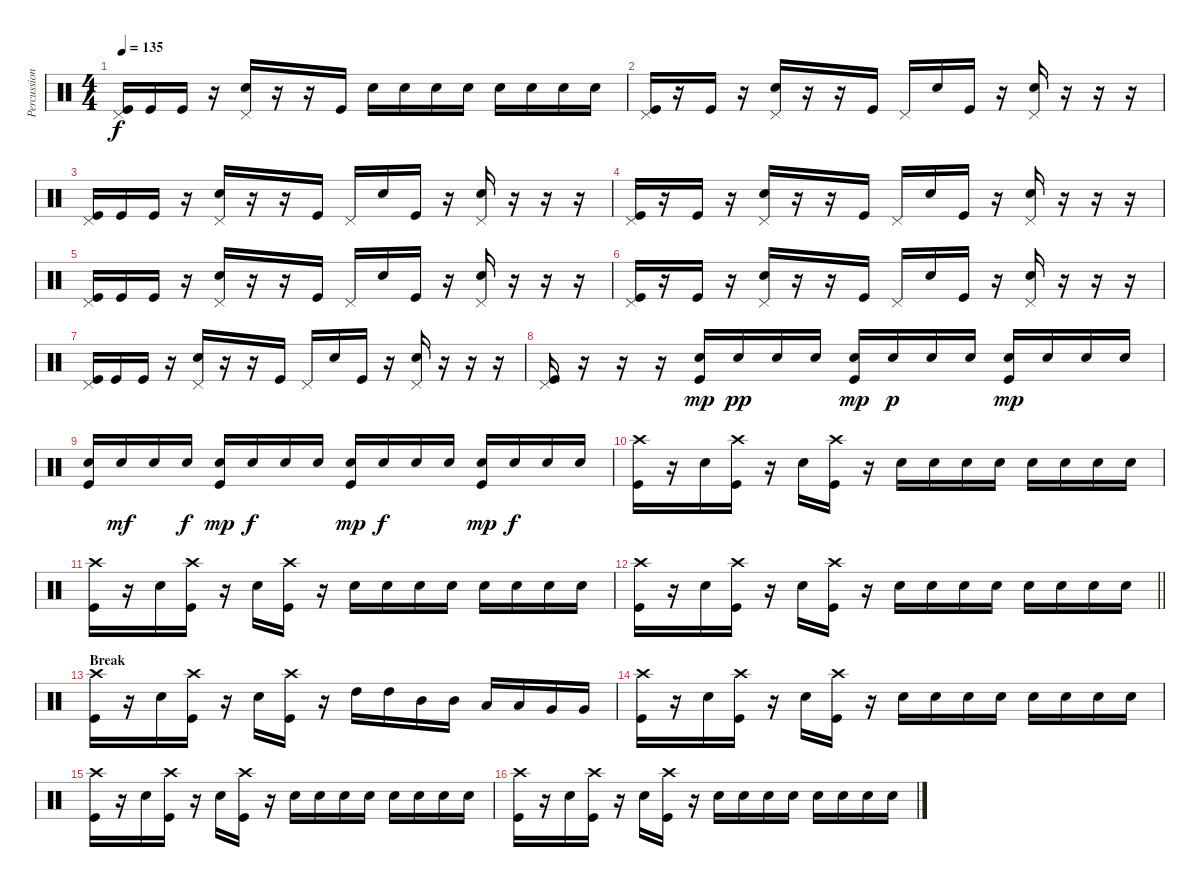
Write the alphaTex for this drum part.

\track ("Percussion" "Percussion") {instrument percussion}
\staff {score}
\articulation defaults
\ts (4 4)
\tempo 135
\clef neutral
\ks c
("Pedal Hi-Hat (hit)" "Kick (hit)").16{dy f} "Kick (hit)".16 "Kick (hit)".16 r.16 ("Pedal Hi-Hat (hit)" "Snare (hit) 2").16 r.16 r.16 "Kick (hit)".16 "Snare (hit) 2".16 "Snare (hit) 2".16 "Snare (hit) 2".16 "Snare (hit) 2".16 "Snare (hit) 2".16 "Snare (hit) 2".16 "Snare (hit) 2".16 "Snare (hit) 2".16 |
("Pedal Hi-Hat (hit)" "Kick (hit)").16 r.16 "Kick (hit)".16 r.16 ("Pedal Hi-Hat (hit)" "Snare (hit) 2").16 r.16 r.16 "Kick (hit)".16 "Pedal Hi-Hat (hit)".16 "Snare (hit) 2".16 "Kick (hit)".16 r.16 ("Pedal Hi-Hat (hit)" "Snare (hit) 2").16 r.16 r.16 r.16 |
("Pedal Hi-Hat (hit)" "Kick (hit)").16 "Kick (hit)".16 "Kick (hit)".16 r.16 ("Pedal Hi-Hat (hit)" "Snare (hit) 2").16 r.16 r.16 "Kick (hit)".16 "Pedal Hi-Hat (hit)".16 "Snare (hit) 2".16 "Kick (hit)".16 r.16 ("Pedal Hi-Hat (hit)" "Snare (hit) 2").16 r.16 r.16 r.16 |
("Pedal Hi-Hat (hit)" "Kick (hit)").16 r.16 "Kick (hit)".16 r.16 ("Pedal Hi-Hat (hit)" "Snare (hit) 2").16 r.16 r.16 "Kick (hit)".16 "Pedal Hi-Hat (hit)".16 "Snare (hit) 2".16 "Kick (hit)".16 r.16 ("Pedal Hi-Hat (hit)" "Snare (hit) 2").16 r.16 r.16 r.16 |
("Pedal Hi-Hat (hit)" "Kick (hit)").16 "Kick (hit)".16 "Kick (hit)".16 r.16 ("Pedal Hi-Hat (hit)" "Snare (hit) 2").16 r.16 r.16 "Kick (hit)".16 "Pedal Hi-Hat (hit)".16 "Snare (hit) 2".16 "Kick (hit)".16 r.16 ("Pedal Hi-Hat (hit)" "Snare (hit) 2").16 r.16 r.16 r.16 |
("Pedal Hi-Hat (hit)" "Kick (hit)").16 r.16 "Kick (hit)".16 r.16 ("Pedal Hi-Hat (hit)" "Snare (hit) 2").16 r.16 r.16 "Kick (hit)".16 "Pedal Hi-Hat (hit)".16 "Snare (hit) 2".16 "Kick (hit)".16 r.16 ("Pedal Hi-Hat (hit)" "Snare (hit) 2").16 r.16 r.16 r.16 |
("Pedal Hi-Hat (hit)" "Kick (hit)").16 "Kick (hit)".16 "Kick (hit)".16 r.16 ("Pedal Hi-Hat (hit)" "Snare (hit) 2").16 r.16 r.16 "Kick (hit)".16 "Pedal Hi-Hat (hit)".16 "Snare (hit) 2".16 "Kick (hit)".16 r.16 ("Pedal Hi-Hat (hit)" "Snare (hit) 2").16 r.16 r.16 r.16 |
("Pedal Hi-Hat (hit)" "Kick (hit)").16 r.16 r.16 r.16 ("Snare (hit) 2" "Kick (hit)").16{dy mp} "Snare (hit) 2".16{dy pp} "Snare (hit) 2".16 "Snare (hit) 2".16 ("Snare (hit) 2" "Kick (hit)").16{dy mp} "Snare (hit) 2".16{dy p} "Snare (hit) 2".16 "Snare (hit) 2".16 ("Snare (hit) 2" "Kick (hit)").16{dy mp} "Snare (hit) 2".16 "Snare (hit) 2".16 "Snare (hit) 2".16 |
("Snare (hit) 2" "Kick (hit)").16 "Snare (hit) 2".16{dy mf} "Snare (hit) 2".16 "Snare (hit) 2".16{dy f} ("Snare (hit) 2" "Kick (hit)").16{dy mp} "Snare (hit) 2".16{dy f} "Snare (hit) 2".16 "Snare (hit) 2".16 ("Snare (hit) 2" "Kick (hit)").16{dy mp} "Snare (hit) 2".16{dy f} "Snare (hit) 2".16 "Snare (hit) 2".16 ("Snare (hit) 2" "Kick (hit)").16{dy mp} "Snare (hit) 2".16{dy f} "Snare (hit) 2".16 "Snare (hit) 2".16 |
("Crash high (hit)" "Kick (hit)").16 r.16 "Snare (hit) 2".16 ("Crash high (hit)" "Kick (hit)").16 r.16 "Snare (hit) 2".16 ("Crash high (hit)" "Kick (hit)").16 r.16 "Snare (hit) 2".16 "Snare (hit) 2".16 "Snare (hit) 2".16 "Snare (hit) 2".16 "Snare (hit) 2".16 "Snare (hit) 2".16 "Snare (hit) 2".16 "Snare (hit) 2".16 |
("Crash high (hit)" "Kick (hit)").16 r.16 "Snare (hit) 2".16 ("Crash high (hit)" "Kick (hit)").16 r.16 "Snare (hit) 2".16 ("Crash high (hit)" "Kick (hit)").16 r.16 "Snare (hit) 2".16 "Snare (hit) 2".16 "Snare (hit) 2".16 "Snare (hit) 2".16 "Snare (hit) 2".16 "Snare (hit) 2".16 "Snare (hit) 2".16 "Snare (hit) 2".16 |
\barLineRight lightlight
("Crash high (hit)" "Kick (hit)").16 r.16 "Snare (hit) 2".16 ("Crash high (hit)" "Kick (hit)").16 r.16 "Snare (hit) 2".16 ("Crash high (hit)" "Kick (hit)").16 r.16 "Snare (hit) 2".16 "Snare (hit) 2".16 "Snare (hit) 2".16 "Snare (hit) 2".16 "Snare (hit) 2".16 "Snare (hit) 2".16 "Snare (hit) 2".16 "Snare (hit) 2".16 |
\section ("" "Break")
("Crash high (hit)" "Kick (hit)").16 r.16 "Snare (hit) 2".16 ("Crash high (hit)" "Kick (hit)").16 r.16 "Snare (hit) 2".16 ("Crash high (hit)" "Kick (hit)").16 r.16 "High Tom (hit)".16 "High Tom (hit)".16 "Mid Tom (hit)".16 "Mid Tom (hit)".16 "Low Tom (hit)".16 "Low Tom (hit)".16 "Very Low Tom (hit)".16 "Very Low Tom (hit)".16 |
("Crash high (hit)" "Kick (hit)").16 r.16 "Snare (hit) 2".16 ("Crash high (hit)" "Kick (hit)").16 r.16 "Snare (hit) 2".16 ("Crash high (hit)" "Kick (hit)").16 r.16 "Snare (hit) 2".16 "Snare (hit) 2".16 "Snare (hit) 2".16 "Snare (hit) 2".16 "Snare (hit) 2".16 "Snare (hit) 2".16 "Snare (hit) 2".16 "Snare (hit) 2".16 |
("Crash high (hit)" "Kick (hit)").16 r.16 "Snare (hit) 2".16 ("Crash high (hit)" "Kick (hit)").16 r.16 "Snare (hit) 2".16 ("Crash high (hit)" "Kick (hit)").16 r.16 "Snare (hit) 2".16 "Snare (hit) 2".16 "Snare (hit) 2".16 "Snare (hit) 2".16 "Snare (hit) 2".16 "Snare (hit) 2".16 "Snare (hit) 2".16 "Snare (hit) 2".16 |
("Crash high (hit)" "Kick (hit)").16 r.16 "Snare (hit) 2".16 ("Crash high (hit)" "Kick (hit)").16 r.16 "Snare (hit) 2".16 ("Crash high (hit)" "Kick (hit)").16 r.16 "Snare (hit) 2".16 "Snare (hit) 2".16 "Snare (hit) 2".16 "Snare (hit) 2".16 "Snare (hit) 2".16 "Snare (hit) 2".16 "Snare (hit) 2".16 "Snare (hit) 2".16
